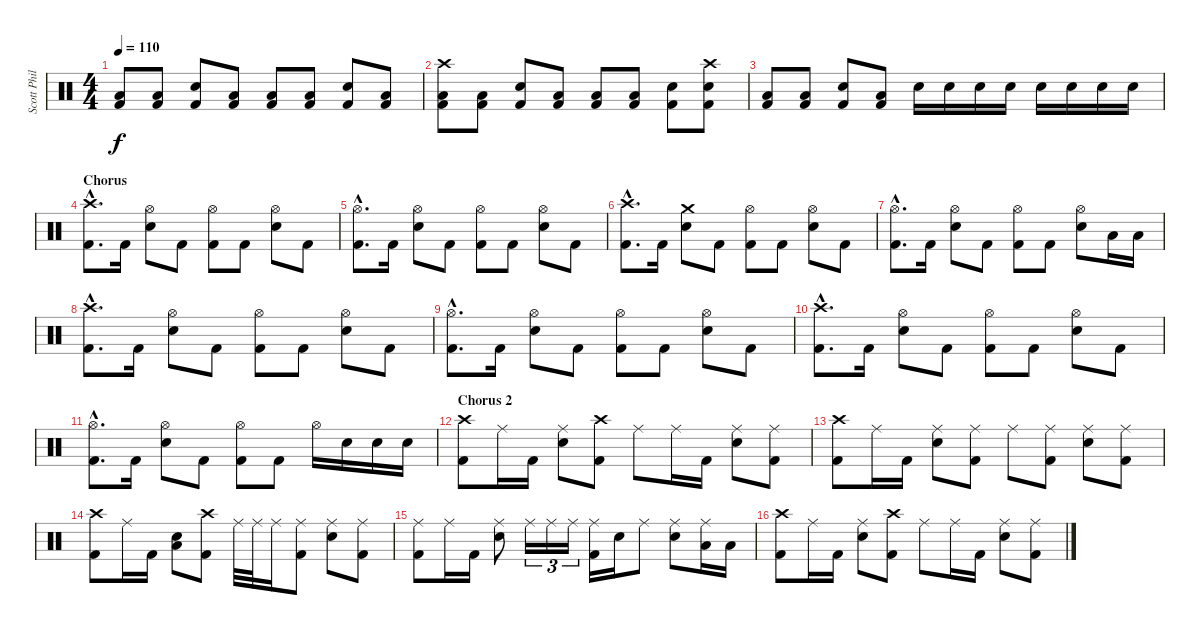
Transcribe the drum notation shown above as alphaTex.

\track ("Scott Phillips" "Scott Phil") {instrument percussion}
\staff {score}
\articulation defaults
\ts (4 4)
\tempo 110
\clef neutral
\ks c
("Low Floor Tom (hit)" "Kick (hit) 2").8{dy f} ("Low Floor Tom (hit)" "Kick (hit) 2").8 ("Electric Snare (hit)" "Kick (hit) 2").8 ("Low Floor Tom (hit)" "Kick (hit) 2").8 ("Low Floor Tom (hit)" "Kick (hit) 2").8 ("Low Floor Tom (hit)" "Kick (hit) 2").8 ("Electric Snare (hit)" "Kick (hit) 2").8 ("Low Floor Tom (hit)" "Kick (hit) 2").8 |
("Crash high (hit)" "Low Floor Tom (hit)" "Kick (hit) 2").8 ("Low Floor Tom (hit)" "Kick (hit) 2").8 ("Electric Snare (hit)" "Kick (hit) 2").8 ("Low Floor Tom (hit)" "Kick (hit) 2").8 ("Low Floor Tom (hit)" "Kick (hit) 2").8 ("Low Floor Tom (hit)" "Kick (hit) 2").8 ("Electric Snare (hit)" "Kick (hit) 2").8 ("Crash high (hit)" "Electric Snare (hit)" "Kick (hit) 2").8 |
("Low Floor Tom (hit)" "Kick (hit) 2").8 ("Low Floor Tom (hit)" "Kick (hit) 2").8 ("Electric Snare (hit)" "Kick (hit) 2").8 ("Low Floor Tom (hit)" "Kick (hit) 2").8 "Electric Snare (hit)".16 "Electric Snare (hit)".16 "Electric Snare (hit)".16 "Electric Snare (hit)".16 "Electric Snare (hit)".16 "Electric Snare (hit)".16 "Electric Snare (hit)".16 "Electric Snare (hit)".16 |
\section ("" "Chorus")
("Crash high (hit)"{hac} "Kick (hit) 2"{hac}).8{d} "Kick (hit) 2".16 ("Hi-Hat (open)" "Electric Snare (hit)").8 "Kick (hit) 2".8 ("Hi-Hat (open)" "Kick (hit) 2").8 "Kick (hit) 2".8 ("Hi-Hat (open)" "Electric Snare (hit)").8 "Kick (hit) 2".8 |
("Hi-Hat (open)"{hac} "Kick (hit) 2"{hac}).8{d} "Kick (hit) 2".16 ("Hi-Hat (open)" "Electric Snare (hit)").8 "Kick (hit) 2".8 ("Hi-Hat (open)" "Kick (hit) 2").8 "Kick (hit) 2".8 ("Hi-Hat (open)" "Electric Snare (hit)").8 "Kick (hit) 2".8 |
("Crash high (hit)"{hac} "Kick (hit) 2"{hac}).8{d} "Kick (hit) 2".16 ("Crash medium (hit)" "Electric Snare (hit)").8 "Kick (hit) 2".8 ("Hi-Hat (open)" "Kick (hit) 2").8 "Kick (hit) 2".8 ("Hi-Hat (open)" "Electric Snare (hit)").8 "Kick (hit) 2".8 |
("Hi-Hat (open)"{hac} "Kick (hit) 2"{hac}).8{d} "Kick (hit) 2".16 ("Hi-Hat (open)" "Electric Snare (hit)").8 "Kick (hit) 2".8 ("Hi-Hat (open)" "Kick (hit) 2").8 "Kick (hit) 2".8 ("Hi-Hat (open)" "Electric Snare (hit)").8 "Low Tom (hit)".16 "Low Tom (hit)".16 |
("Crash high (hit)"{hac} "Kick (hit) 2"{hac}).8{d} "Kick (hit) 2".16 ("Hi-Hat (open)" "Electric Snare (hit)").8 "Kick (hit) 2".8 ("Hi-Hat (open)" "Kick (hit) 2").8 "Kick (hit) 2".8 ("Hi-Hat (open)" "Electric Snare (hit)").8 "Kick (hit) 2".8 |
("Hi-Hat (open)"{hac} "Kick (hit) 2"{hac}).8{d} "Kick (hit) 2".16 ("Hi-Hat (open)" "Electric Snare (hit)").8 "Kick (hit) 2".8 ("Hi-Hat (open)" "Kick (hit) 2").8 "Kick (hit) 2".8 ("Hi-Hat (open)" "Electric Snare (hit)").8 "Kick (hit) 2".8 |
("Crash high (hit)"{hac} "Kick (hit) 2"{hac}).8{d} "Kick (hit) 2".16 ("Hi-Hat (open)" "Electric Snare (hit)").8 "Kick (hit) 2".8 ("Hi-Hat (open)" "Kick (hit) 2").8 "Kick (hit) 2".8 ("Hi-Hat (open)" "Electric Snare (hit)").8 "Kick (hit) 2".8 |
("Hi-Hat (open)"{hac} "Kick (hit) 2"{hac}).8{d} "Kick (hit) 2".16 ("Hi-Hat (open)" "Electric Snare (hit)").8 "Kick (hit) 2".8 ("Hi-Hat (open)" "Kick (hit) 2").8 "Kick (hit) 2".8 "Hi-Hat (open)".16 "Electric Snare (hit)".16 "Electric Snare (hit)".16 "Electric Snare (hit)".16 |
\section ("" "Chorus 2")
("Crash high (hit)" "Kick (hit) 2").8 "Ride (middle)".16 "Kick (hit) 2".16 ("Ride (middle)" "Electric Snare (hit)").8 ("Crash high (hit)" "Kick (hit) 2").8 "Ride (middle)".8 "Ride (middle)".16 "Kick (hit) 2".16 ("Ride (middle)" "Electric Snare (hit)").8 ("Ride (middle)" "Kick (hit) 2").8 |
("Crash high (hit)" "Kick (hit) 2").8 "Ride (middle)".16 "Kick (hit) 2".16 ("Ride (middle)" "Electric Snare (hit)").8 ("Ride (middle)" "Kick (hit) 2").8 "Ride (middle)".8 ("Ride (middle)" "Kick (hit) 2").8 ("Ride (middle)" "Electric Snare (hit)").8 ("Ride (middle)" "Kick (hit) 2").8 |
("Crash high (hit)" "Kick (hit) 2").8 "Ride (middle)".16 "Kick (hit) 2".16 ("Low Tom (hit)" "Electric Snare (hit)").8 ("Crash high (hit)" "Kick (hit) 2").8 "Ride (middle)".32 "Ride (middle)".32 "Ride (middle)".16 ("Ride (middle)" "Kick (hit) 2").8 ("Ride (middle)" "Electric Snare (hit)").8 ("Ride (middle)" "Kick (hit) 2").8 |
("Ride (middle)" "Kick (hit) 2").8 "Ride (middle)".16 "Kick (hit) 2".16 ("Ride (middle)" "Electric Snare (hit)").8 "Ride (middle)".16{tu (3 2)} "Ride (middle)".16{tu (3 2)} "Ride (middle)".16{tu (3 2)} ("Ride (middle)" "Kick (hit) 2").16 "Electric Snare (hit)".16 "Ride (middle)".8 ("Ride (middle)" "Electric Snare (hit)").8 ("Ride (middle)" "Low Tom (hit)").16 "Low Tom (hit)".16 |
("Crash high (hit)" "Kick (hit) 2").8 "Ride (middle)".16 "Kick (hit) 2".16 ("Ride (middle)" "Electric Snare (hit)").8 ("Crash high (hit)" "Kick (hit) 2").8 "Ride (middle)".8 "Ride (middle)".16 "Kick (hit) 2".16 ("Ride (middle)" "Electric Snare (hit)").8 ("Ride (middle)" "Kick (hit) 2").8
